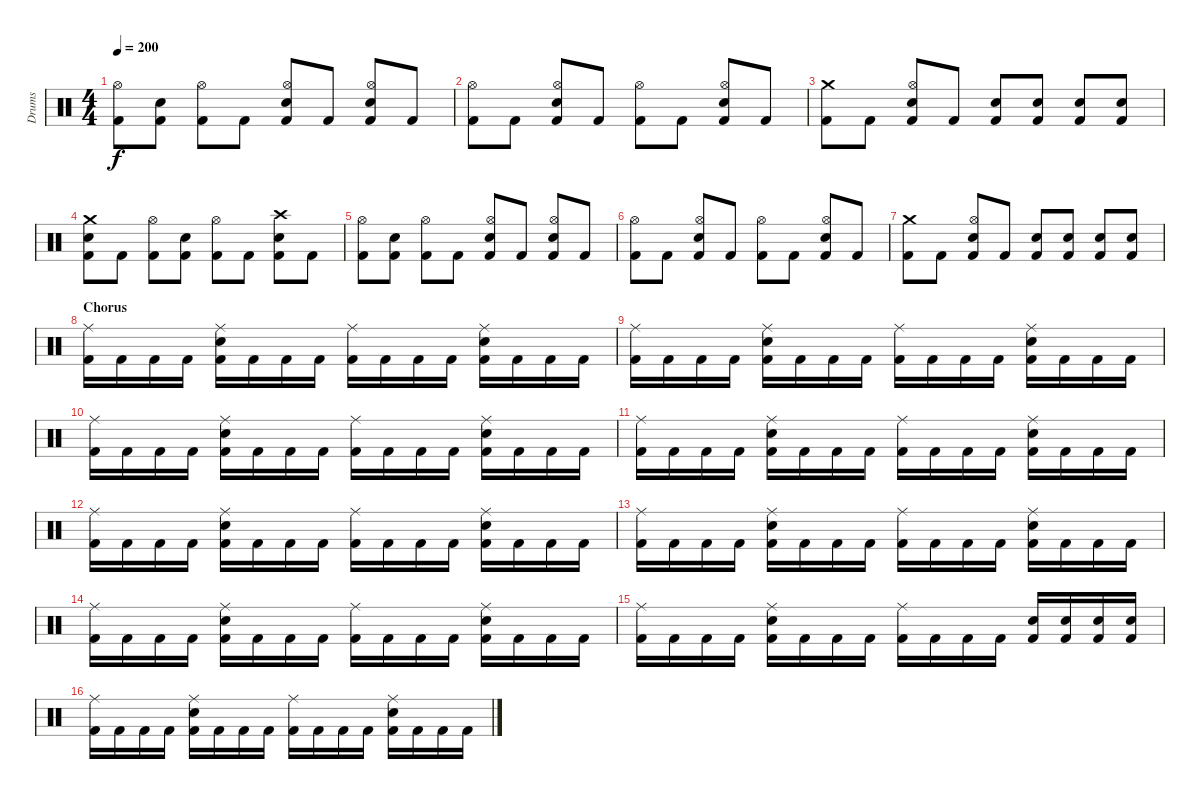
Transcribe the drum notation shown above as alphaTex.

\track ("Drums" "Drums") {instrument percussion}
\staff {score}
\articulation defaults
\ts (4 4)
\tempo 200
\clef neutral
\ks c
("Kick (hit) 2" "Hi-Hat (open)").8{dy f} ("Kick (hit) 2" "Snare (hit) 2").8 ("Kick (hit) 2" "Hi-Hat (open)").8 "Kick (hit) 2".8 ("Kick (hit) 2" "Snare (hit) 2" "Hi-Hat (open)").8 "Kick (hit) 2".8 ("Kick (hit) 2" "Snare (hit) 2" "Hi-Hat (open)").8 "Kick (hit) 2".8 |
("Kick (hit) 2" "Hi-Hat (open)").8 "Kick (hit) 2".8 ("Kick (hit) 2" "Snare (hit) 2" "Hi-Hat (open)").8 "Kick (hit) 2".8 ("Kick (hit) 2" "Hi-Hat (open)").8 "Kick (hit) 2".8 ("Kick (hit) 2" "Snare (hit) 2" "Hi-Hat (open)").8 "Kick (hit) 2".8 |
("Kick (hit) 2" "Crash medium (hit)").8 "Kick (hit) 2".8 ("Kick (hit) 2" "Snare (hit) 2" "Hi-Hat (open)").8 "Kick (hit) 2".8 ("Kick (hit) 2" "Snare (hit) 2").8 ("Kick (hit) 2" "Snare (hit) 2").8 ("Kick (hit) 2" "Snare (hit) 2").8 ("Kick (hit) 2" "Snare (hit) 2").8 |
("Kick (hit) 2" "Snare (hit) 2" "Crash medium (hit)").8 "Kick (hit) 2".8 ("Kick (hit) 2" "Hi-Hat (open)").8 ("Kick (hit) 2" "Snare (hit) 2").8 ("Kick (hit) 2" "Hi-Hat (open)").8 "Kick (hit) 2".8 ("Kick (hit) 2" "Snare (hit) 2" "Crash high (hit)").8 "Kick (hit) 2".8 |
("Kick (hit) 2" "Hi-Hat (open)").8 ("Kick (hit) 2" "Snare (hit) 2").8 ("Kick (hit) 2" "Hi-Hat (open)").8 "Kick (hit) 2".8 ("Kick (hit) 2" "Snare (hit) 2" "Hi-Hat (open)").8 "Kick (hit) 2".8 ("Kick (hit) 2" "Snare (hit) 2" "Hi-Hat (open)").8 "Kick (hit) 2".8 |
("Kick (hit) 2" "Hi-Hat (open)").8 "Kick (hit) 2".8 ("Kick (hit) 2" "Snare (hit) 2" "Hi-Hat (open)").8 "Kick (hit) 2".8 ("Kick (hit) 2" "Hi-Hat (open)").8 "Kick (hit) 2".8 ("Kick (hit) 2" "Snare (hit) 2" "Hi-Hat (open)").8 "Kick (hit) 2".8 |
("Kick (hit) 2" "Crash medium (hit)").8 "Kick (hit) 2".8 ("Kick (hit) 2" "Snare (hit) 2" "Hi-Hat (open)").8 "Kick (hit) 2".8 ("Kick (hit) 2" "Snare (hit) 2").8 ("Kick (hit) 2" "Snare (hit) 2").8 ("Kick (hit) 2" "Snare (hit) 2").8 ("Kick (hit) 2" "Snare (hit) 2").8 |
\section ("" "Chorus")
("Kick (hit) 2" "Ride (middle)").16 "Kick (hit) 2".16 "Kick (hit) 2".16 "Kick (hit) 2".16 ("Kick (hit) 2" "Snare (hit) 2" "Ride (middle)").16 "Kick (hit) 2".16 "Kick (hit) 2".16 "Kick (hit) 2".16 ("Kick (hit) 2" "Ride (middle)").16 "Kick (hit) 2".16 "Kick (hit) 2".16 "Kick (hit) 2".16 ("Kick (hit) 2" "Snare (hit) 2" "Ride (middle)").16 "Kick (hit) 2".16 "Kick (hit) 2".16 "Kick (hit) 2".16 |
("Kick (hit) 2" "Ride (middle)").16 "Kick (hit) 2".16 "Kick (hit) 2".16 "Kick (hit) 2".16 ("Kick (hit) 2" "Snare (hit) 2" "Ride (middle)").16 "Kick (hit) 2".16 "Kick (hit) 2".16 "Kick (hit) 2".16 ("Kick (hit) 2" "Ride (middle)").16 "Kick (hit) 2".16 "Kick (hit) 2".16 "Kick (hit) 2".16 ("Kick (hit) 2" "Snare (hit) 2" "Ride (middle)").16 "Kick (hit) 2".16 "Kick (hit) 2".16 "Kick (hit) 2".16 |
("Kick (hit) 2" "Ride (middle)").16 "Kick (hit) 2".16 "Kick (hit) 2".16 "Kick (hit) 2".16 ("Kick (hit) 2" "Snare (hit) 2" "Ride (middle)").16 "Kick (hit) 2".16 "Kick (hit) 2".16 "Kick (hit) 2".16 ("Kick (hit) 2" "Ride (middle)").16 "Kick (hit) 2".16 "Kick (hit) 2".16 "Kick (hit) 2".16 ("Kick (hit) 2" "Snare (hit) 2" "Ride (middle)").16 "Kick (hit) 2".16 "Kick (hit) 2".16 "Kick (hit) 2".16 |
("Kick (hit) 2" "Ride (middle)").16 "Kick (hit) 2".16 "Kick (hit) 2".16 "Kick (hit) 2".16 ("Kick (hit) 2" "Snare (hit) 2" "Ride (middle)").16 "Kick (hit) 2".16 "Kick (hit) 2".16 "Kick (hit) 2".16 ("Kick (hit) 2" "Ride (middle)").16 "Kick (hit) 2".16 "Kick (hit) 2".16 "Kick (hit) 2".16 ("Kick (hit) 2" "Snare (hit) 2" "Ride (middle)").16 "Kick (hit) 2".16 "Kick (hit) 2".16 "Kick (hit) 2".16 |
("Kick (hit) 2" "Ride (middle)").16 "Kick (hit) 2".16 "Kick (hit) 2".16 "Kick (hit) 2".16 ("Kick (hit) 2" "Snare (hit) 2" "Ride (middle)").16 "Kick (hit) 2".16 "Kick (hit) 2".16 "Kick (hit) 2".16 ("Kick (hit) 2" "Ride (middle)").16 "Kick (hit) 2".16 "Kick (hit) 2".16 "Kick (hit) 2".16 ("Kick (hit) 2" "Snare (hit) 2" "Ride (middle)").16 "Kick (hit) 2".16 "Kick (hit) 2".16 "Kick (hit) 2".16 |
("Kick (hit) 2" "Ride (middle)").16 "Kick (hit) 2".16 "Kick (hit) 2".16 "Kick (hit) 2".16 ("Kick (hit) 2" "Snare (hit) 2" "Ride (middle)").16 "Kick (hit) 2".16 "Kick (hit) 2".16 "Kick (hit) 2".16 ("Kick (hit) 2" "Ride (middle)").16 "Kick (hit) 2".16 "Kick (hit) 2".16 "Kick (hit) 2".16 ("Kick (hit) 2" "Snare (hit) 2" "Ride (middle)").16 "Kick (hit) 2".16 "Kick (hit) 2".16 "Kick (hit) 2".16 |
("Kick (hit) 2" "Ride (middle)").16 "Kick (hit) 2".16 "Kick (hit) 2".16 "Kick (hit) 2".16 ("Kick (hit) 2" "Snare (hit) 2" "Ride (middle)").16 "Kick (hit) 2".16 "Kick (hit) 2".16 "Kick (hit) 2".16 ("Kick (hit) 2" "Ride (middle)").16 "Kick (hit) 2".16 "Kick (hit) 2".16 "Kick (hit) 2".16 ("Kick (hit) 2" "Snare (hit) 2" "Ride (middle)").16 "Kick (hit) 2".16 "Kick (hit) 2".16 "Kick (hit) 2".16 |
("Kick (hit) 2" "Ride (middle)").16 "Kick (hit) 2".16 "Kick (hit) 2".16 "Kick (hit) 2".16 ("Kick (hit) 2" "Snare (hit) 2" "Ride (middle)").16 "Kick (hit) 2".16 "Kick (hit) 2".16 "Kick (hit) 2".16 ("Kick (hit) 2" "Ride (middle)").16 "Kick (hit) 2".16 "Kick (hit) 2".16 "Kick (hit) 2".16 ("Kick (hit) 2" "Snare (hit) 2").16 ("Kick (hit) 2" "Snare (hit) 2").16 ("Kick (hit) 2" "Snare (hit) 2").16 ("Kick (hit) 2" "Snare (hit) 2").16 |
("Kick (hit) 2" "Ride (middle)").16 "Kick (hit) 2".16 "Kick (hit) 2".16 "Kick (hit) 2".16 ("Kick (hit) 2" "Snare (hit) 2" "Ride (middle)").16 "Kick (hit) 2".16 "Kick (hit) 2".16 "Kick (hit) 2".16 ("Kick (hit) 2" "Ride (middle)").16 "Kick (hit) 2".16 "Kick (hit) 2".16 "Kick (hit) 2".16 ("Kick (hit) 2" "Snare (hit) 2" "Ride (middle)").16 "Kick (hit) 2".16 "Kick (hit) 2".16 "Kick (hit) 2".16
